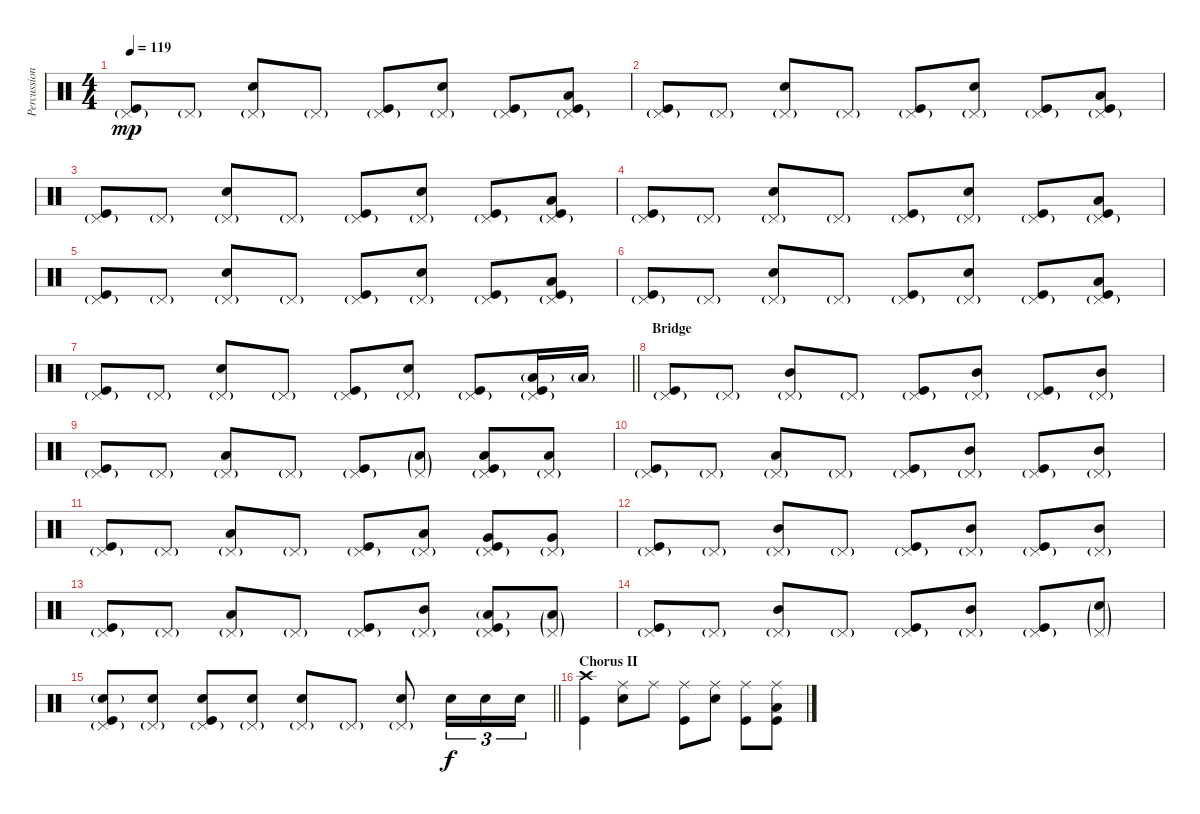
\track ("Percussion" "Percussion") {instrument percussion}
\staff {score}
\articulation defaults
\ts (4 4)
\tempo 119
\clef neutral
\ks c
("Pedal Hi-Hat (hit)"{g} "Kick (hit)").8{dy mp} "Pedal Hi-Hat (hit)"{g}.8 ("Pedal Hi-Hat (hit)"{g} "Snare (hit) 2").8 "Pedal Hi-Hat (hit)"{g}.8 ("Pedal Hi-Hat (hit)"{g} "Kick (hit)").8 ("Pedal Hi-Hat (hit)"{g} "Snare (hit) 2").8 ("Pedal Hi-Hat (hit)"{g} "Kick (hit)").8 ("Pedal Hi-Hat (hit)"{g} "Low Tom (hit)" "Kick (hit)").8 |
("Pedal Hi-Hat (hit)"{g} "Kick (hit)").8 "Pedal Hi-Hat (hit)"{g}.8 ("Pedal Hi-Hat (hit)"{g} "Snare (hit) 2").8 "Pedal Hi-Hat (hit)"{g}.8 ("Pedal Hi-Hat (hit)"{g} "Kick (hit)").8 ("Pedal Hi-Hat (hit)"{g} "Snare (hit) 2").8 ("Pedal Hi-Hat (hit)"{g} "Kick (hit)").8 ("Pedal Hi-Hat (hit)"{g} "Low Tom (hit)" "Kick (hit)").8 |
("Pedal Hi-Hat (hit)"{g} "Kick (hit)").8 "Pedal Hi-Hat (hit)"{g}.8 ("Pedal Hi-Hat (hit)"{g} "Snare (hit) 2").8 "Pedal Hi-Hat (hit)"{g}.8 ("Pedal Hi-Hat (hit)"{g} "Kick (hit)").8 ("Pedal Hi-Hat (hit)"{g} "Snare (hit) 2").8 ("Pedal Hi-Hat (hit)"{g} "Kick (hit)").8 ("Pedal Hi-Hat (hit)"{g} "Low Tom (hit)" "Kick (hit)").8 |
("Pedal Hi-Hat (hit)"{g} "Kick (hit)").8 "Pedal Hi-Hat (hit)"{g}.8 ("Pedal Hi-Hat (hit)"{g} "Snare (hit) 2").8 "Pedal Hi-Hat (hit)"{g}.8 ("Pedal Hi-Hat (hit)"{g} "Kick (hit)").8 ("Pedal Hi-Hat (hit)"{g} "Snare (hit) 2").8 ("Pedal Hi-Hat (hit)"{g} "Kick (hit)").8 ("Pedal Hi-Hat (hit)"{g} "Low Tom (hit)" "Kick (hit)").8 |
("Pedal Hi-Hat (hit)"{g} "Kick (hit)").8 "Pedal Hi-Hat (hit)"{g}.8 ("Pedal Hi-Hat (hit)"{g} "Snare (hit) 2").8 "Pedal Hi-Hat (hit)"{g}.8 ("Pedal Hi-Hat (hit)"{g} "Kick (hit)").8 ("Pedal Hi-Hat (hit)"{g} "Snare (hit) 2").8 ("Pedal Hi-Hat (hit)"{g} "Kick (hit)").8 ("Pedal Hi-Hat (hit)"{g} "Low Tom (hit)" "Kick (hit)").8 |
("Pedal Hi-Hat (hit)"{g} "Kick (hit)").8 "Pedal Hi-Hat (hit)"{g}.8 ("Pedal Hi-Hat (hit)"{g} "Snare (hit) 2").8 "Pedal Hi-Hat (hit)"{g}.8 ("Pedal Hi-Hat (hit)"{g} "Kick (hit)").8 ("Pedal Hi-Hat (hit)"{g} "Snare (hit) 2").8 ("Pedal Hi-Hat (hit)"{g} "Kick (hit)").8 ("Pedal Hi-Hat (hit)"{g} "Low Tom (hit)" "Kick (hit)").8 |
\barLineRight lightlight
("Pedal Hi-Hat (hit)"{g} "Kick (hit)").8 "Pedal Hi-Hat (hit)"{g}.8 ("Pedal Hi-Hat (hit)"{g} "Snare (hit) 2").8 "Pedal Hi-Hat (hit)"{g}.8 ("Pedal Hi-Hat (hit)"{g} "Kick (hit)").8 ("Pedal Hi-Hat (hit)"{g} "Snare (hit) 2").8 ("Pedal Hi-Hat (hit)"{g} "Kick (hit)").8 ("Pedal Hi-Hat (hit)"{g} "Low Floor Tom (hit)"{g} "Kick (hit)").16 "Low Floor Tom (hit)"{g}.16 |
\section ("" "Bridge")
("Pedal Hi-Hat (hit)"{g} "Kick (hit)").8 "Pedal Hi-Hat (hit)"{g}.8 ("Pedal Hi-Hat (hit)"{g} "Mid Tom (hit)").8 "Pedal Hi-Hat (hit)"{g}.8 ("Pedal Hi-Hat (hit)"{g} "Kick (hit)").8 ("Pedal Hi-Hat (hit)"{g} "Mid Tom (hit)").8 ("Pedal Hi-Hat (hit)"{g} "Kick (hit)").8 ("Pedal Hi-Hat (hit)"{g} "Mid Tom (hit)").8 |
("Pedal Hi-Hat (hit)"{g} "Kick (hit)").8 "Pedal Hi-Hat (hit)"{g}.8 ("Pedal Hi-Hat (hit)"{g} "Low Tom (hit)").8 "Pedal Hi-Hat (hit)"{g}.8 ("Pedal Hi-Hat (hit)"{g} "Kick (hit)").8 ("Pedal Hi-Hat (hit)"{g} "Low Tom (hit)"{g}).8 ("Pedal Hi-Hat (hit)"{g} "Low Tom (hit)" "Kick (hit)").8 ("Pedal Hi-Hat (hit)"{g} "Low Tom (hit)").8 |
("Pedal Hi-Hat (hit)"{g} "Kick (hit)").8 "Pedal Hi-Hat (hit)"{g}.8 ("Pedal Hi-Hat (hit)"{g} "Low Tom (hit)").8 "Pedal Hi-Hat (hit)"{g}.8 ("Pedal Hi-Hat (hit)"{g} "Kick (hit)").8 ("Pedal Hi-Hat (hit)"{g} "Mid Tom (hit)").8 ("Pedal Hi-Hat (hit)"{g} "Kick (hit)").8 ("Pedal Hi-Hat (hit)"{g} "Mid Tom (hit)").8 |
("Pedal Hi-Hat (hit)"{g} "Kick (hit)").8 "Pedal Hi-Hat (hit)"{g}.8 ("Pedal Hi-Hat (hit)"{g} "Low Tom (hit)").8 "Pedal Hi-Hat (hit)"{g}.8 ("Pedal Hi-Hat (hit)"{g} "Kick (hit)").8 ("Pedal Hi-Hat (hit)"{g} "Low Tom (hit)").8 ("Pedal Hi-Hat (hit)"{g} "Very Low Tom (hit)" "Kick (hit)").8 ("Pedal Hi-Hat (hit)"{g} "Very Low Tom (hit)").8 |
("Pedal Hi-Hat (hit)"{g} "Kick (hit)").8 "Pedal Hi-Hat (hit)"{g}.8 ("Pedal Hi-Hat (hit)"{g} "Mid Tom (hit)").8 "Pedal Hi-Hat (hit)"{g}.8 ("Pedal Hi-Hat (hit)"{g} "Kick (hit)").8 ("Pedal Hi-Hat (hit)"{g} "Mid Tom (hit)").8 ("Pedal Hi-Hat (hit)"{g} "Kick (hit)").8 ("Pedal Hi-Hat (hit)"{g} "Mid Tom (hit)").8 |
("Pedal Hi-Hat (hit)"{g} "Kick (hit)").8 "Pedal Hi-Hat (hit)"{g}.8 ("Pedal Hi-Hat (hit)"{g} "Low Tom (hit)").8 "Pedal Hi-Hat (hit)"{g}.8 ("Pedal Hi-Hat (hit)"{g} "Kick (hit)").8 ("Pedal Hi-Hat (hit)"{g} "Mid Tom (hit)").8 ("Pedal Hi-Hat (hit)"{g} "Low Tom (hit)"{g} "Kick (hit)").8 ("Pedal Hi-Hat (hit)"{g} "Low Tom (hit)"{g}).8 |
("Pedal Hi-Hat (hit)"{g} "Kick (hit)").8 "Pedal Hi-Hat (hit)"{g}.8 ("Pedal Hi-Hat (hit)"{g} "Mid Tom (hit)").8 "Pedal Hi-Hat (hit)"{g}.8 ("Pedal Hi-Hat (hit)"{g} "Kick (hit)").8 ("Pedal Hi-Hat (hit)"{g} "Mid Tom (hit)").8 ("Pedal Hi-Hat (hit)"{g} "Kick (hit)").8 ("Pedal Hi-Hat (hit)"{g} "Snare (hit) 2"{g}).8{volume 7} |
\barLineRight lightlight
("Pedal Hi-Hat (hit)"{g} "Snare (hit) 2"{g} "Kick (hit)").8{volume 13} ("Pedal Hi-Hat (hit)"{g} "Snare (hit) 2").8 ("Pedal Hi-Hat (hit)"{g} "Snare (hit) 2" "Kick (hit)").8 ("Pedal Hi-Hat (hit)"{g} "Snare (hit) 2").8 ("Pedal Hi-Hat (hit)"{g} "Snare (hit) 2").8 "Pedal Hi-Hat (hit)"{g}.8 ("Pedal Hi-Hat (hit)"{g} "Snare (hit) 2").8 "Snare (hit) 2".16{tu (3 2) dy f} "Snare (hit) 2".16{tu (3 2)} "Snare (hit) 2".16{tu (3 2)} |
\section ("" "Chorus II")
("Crash high (hit)" "Kick (hit)").4 ("Ride (middle)" "Snare (hit) 2").8 "Ride (middle)".8 ("Ride (middle)" "Kick (hit)").8 ("Ride (middle)" "Snare (hit) 2").8 ("Ride (middle)" "Kick (hit)").8 ("Ride (middle)" "Low Tom (hit)" "Kick (hit)").8
